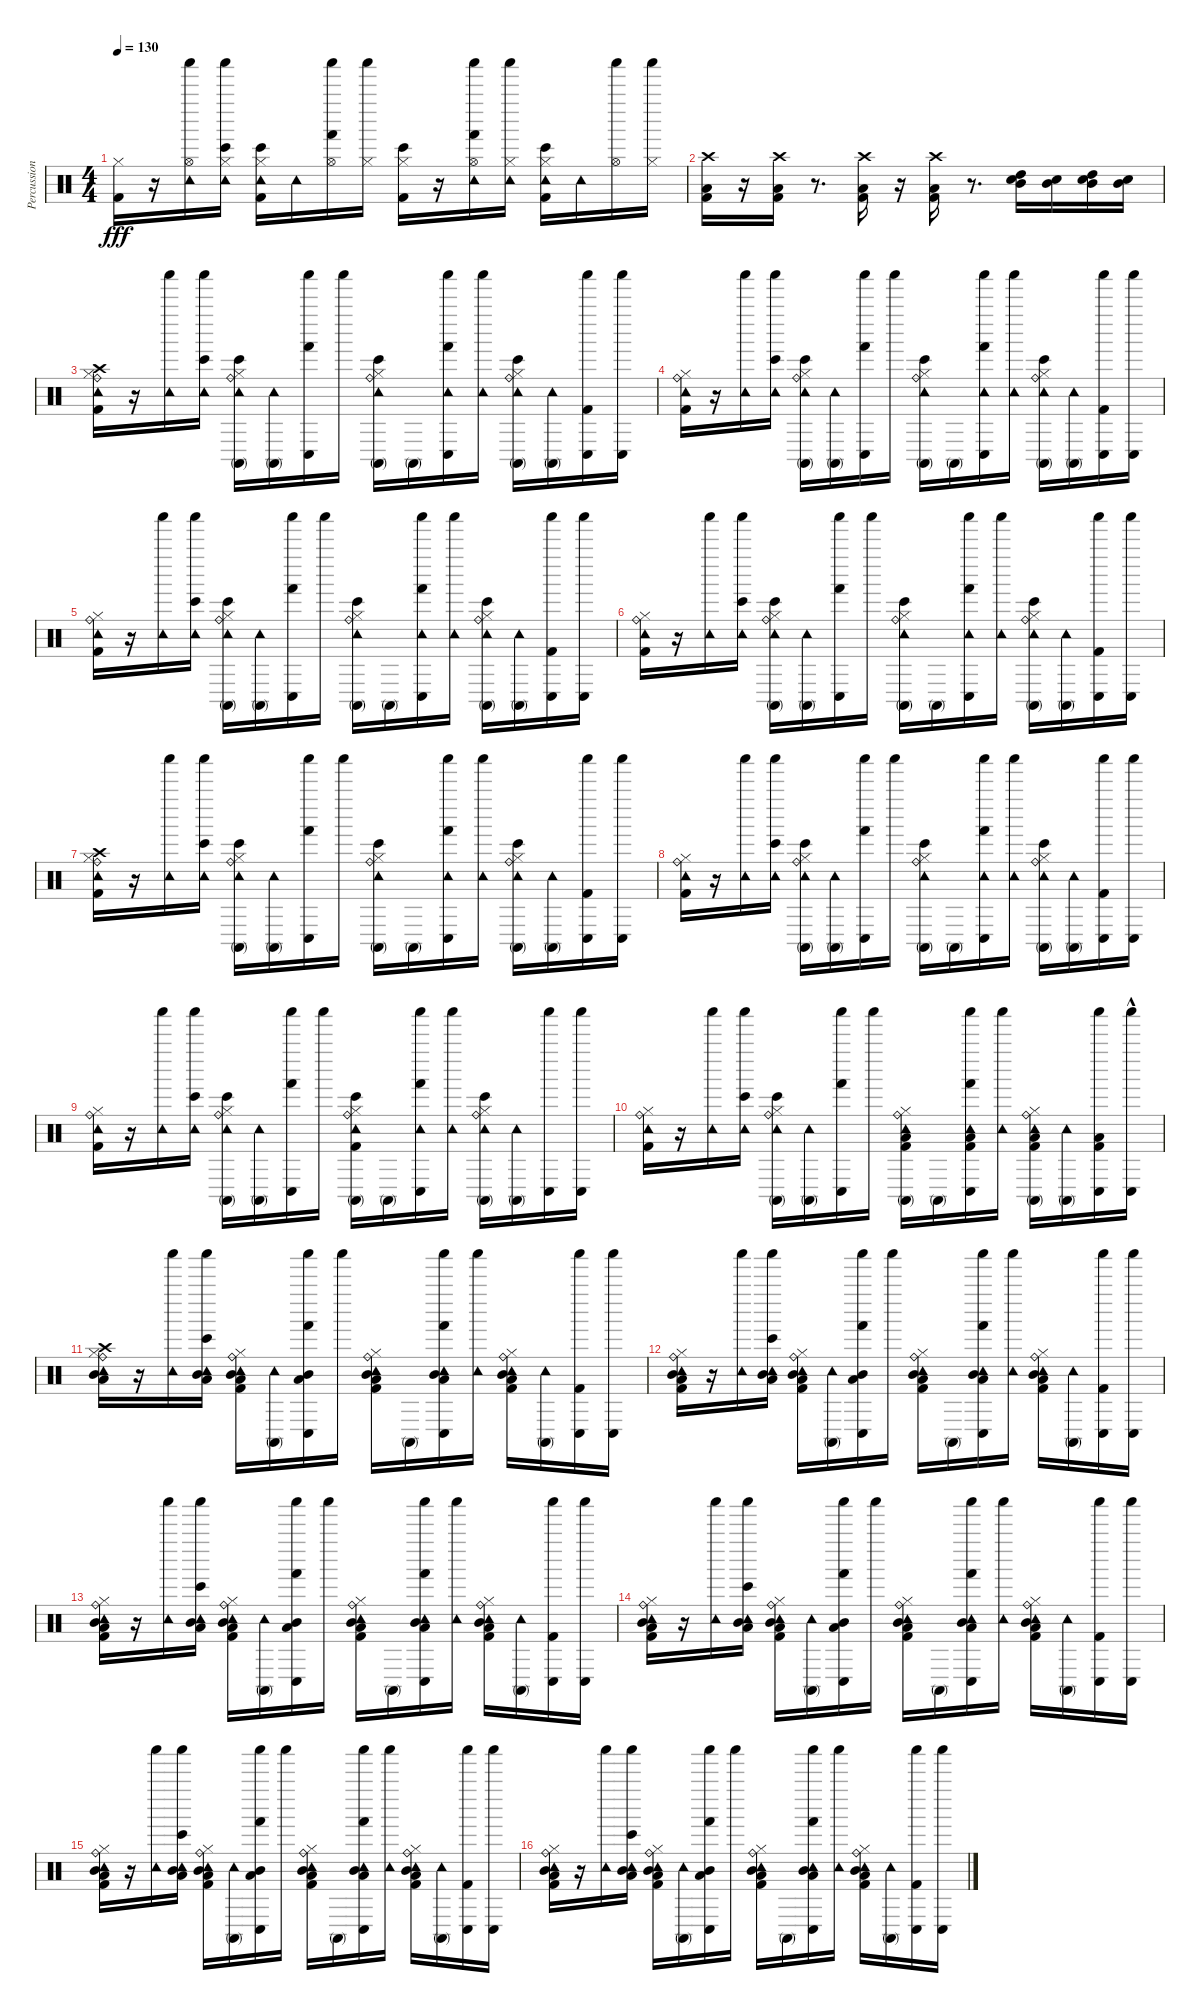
\track ("Percussions" "Percussion") {instrument percussion}
\staff {score}
\articulation defaults
\ts (4 4)
\tempo 130
\clef neutral
\ks c
("Hi-Hat (closed)" "Kick (hit) 2").16{dy fff} r.16 ("Hi-Hat (open)" "Tambourine (hit)" "Shaker (hit)").16 ("Tambourine (hit)" "Shaker (hit)" "Bongo High (hit)" "Hi-Hat (closed)").16 ("Hi-Hat (closed)" "Kick (hit) 2" "Tambourine (hit)" "Bongo High (hit)").16 "Tambourine (hit)".16 ("Hi-Hat (open)" "Shaker (hit)" "Hand (hit)").16 ("Shaker (hit)" "Hi-Hat (closed)").16 ("Hi-Hat (closed)" "Kick (hit) 2" "Bongo High (hit)").16 r.16 ("Hi-Hat (open)" "Tambourine (hit)" "Shaker (hit)" "Hand (hit)").16 ("Tambourine (hit)" "Shaker (hit)" "Hi-Hat (closed)").16 ("Hi-Hat (closed)" "Kick (hit) 2" "Tambourine (hit)" "Bongo High (hit)").16 "Tambourine (hit)".16 ("Hi-Hat (open)" "Shaker (hit)").16 ("Shaker (hit)" "Hi-Hat (closed)").16 |
("Low Tom (hit)" "Crash high (hit)" "Kick (hit) 2").16 r.16 ("Low Tom (hit)" "Crash high (hit)" "Kick (hit) 2").16 r.8{d} ("Low Tom (hit)" "Crash high (hit)" "Kick (hit) 2").16 r.16 ("Low Tom (hit)" "Crash high (hit)" "Kick (hit) 2").16 r.8{d} ("High Tom (hit)" "Mid Tom (hit)" "Snare (hit) 2").16 ("Mid Tom (hit)" "Snare (hit) 2").16 ("High Tom (hit)" "Mid Tom (hit)" "Snare (hit) 2").16 ("Mid Tom (hit)" "Snare (hit) 2").16 |
("Ride (bell)" "Hi-Hat (closed)" "Tambourine (hit)" "Kick (hit) 2" "Crash high (hit)").16 r.16 ("Tambourine (hit)" "Shaker (hit)").16 ("Tambourine (hit)" "Shaker (hit)" "Bongo High (hit)").16 ("Ride (bell)" "Hi-Hat (closed)" "Tambourine (hit)" "Conga high (mute)" "Bongo High (hit)").16 ("Conga high (mute)" "Tambourine (hit)").16 ("Conga low (hit)" "Shaker (hit)" "Hand (hit)").16 "Shaker (hit)".16 ("Ride (bell)" "Hi-Hat (closed)" "Tambourine (hit)" "Conga high (mute)" "Bongo High (hit)").16 "Conga high (mute)".16 ("Conga low (hit)" "Tambourine (hit)" "Shaker (hit)" "Hand (hit)").16 ("Tambourine (hit)" "Shaker (hit)").16 ("Ride (bell)" "Hi-Hat (closed)" "Tambourine (hit)" "Conga high (mute)" "Bongo High (hit)").16 ("Conga high (mute)" "Tambourine (hit)").16 ("Conga low (hit)" "Kick (hit) 2" "Shaker (hit)").16 ("Conga low (hit)" "Shaker (hit)").16 |
("Ride (bell)" "Hi-Hat (closed)" "Tambourine (hit)" "Kick (hit) 2").16 r.16 ("Tambourine (hit)" "Shaker (hit)").16 ("Tambourine (hit)" "Shaker (hit)" "Bongo High (hit)").16 ("Ride (bell)" "Hi-Hat (closed)" "Tambourine (hit)" "Conga high (mute)" "Bongo High (hit)").16 ("Conga high (mute)" "Tambourine (hit)").16 ("Conga low (hit)" "Shaker (hit)" "Hand (hit)").16 "Shaker (hit)".16 ("Ride (bell)" "Hi-Hat (closed)" "Tambourine (hit)" "Conga high (mute)" "Bongo High (hit)").16 "Conga high (mute)".16 ("Conga low (hit)" "Tambourine (hit)" "Shaker (hit)" "Hand (hit)").16 ("Tambourine (hit)" "Shaker (hit)").16 ("Ride (bell)" "Hi-Hat (closed)" "Tambourine (hit)" "Conga high (mute)" "Bongo High (hit)").16 ("Conga high (mute)" "Tambourine (hit)").16 ("Conga low (hit)" "Kick (hit) 2" "Shaker (hit)").16 ("Conga low (hit)" "Shaker (hit)").16 |
("Ride (bell)" "Hi-Hat (closed)" "Tambourine (hit)" "Kick (hit) 2").16 r.16 ("Tambourine (hit)" "Shaker (hit)").16 ("Tambourine (hit)" "Shaker (hit)" "Bongo High (hit)").16 ("Ride (bell)" "Hi-Hat (closed)" "Tambourine (hit)" "Conga high (mute)" "Bongo High (hit)").16 ("Conga high (mute)" "Tambourine (hit)").16 ("Conga low (hit)" "Shaker (hit)" "Hand (hit)").16 "Shaker (hit)".16 ("Ride (bell)" "Hi-Hat (closed)" "Tambourine (hit)" "Conga high (mute)" "Bongo High (hit)").16 "Conga high (mute)".16 ("Conga low (hit)" "Tambourine (hit)" "Shaker (hit)" "Hand (hit)").16 ("Tambourine (hit)" "Shaker (hit)").16 ("Ride (bell)" "Hi-Hat (closed)" "Tambourine (hit)" "Conga high (mute)" "Bongo High (hit)").16 ("Conga high (mute)" "Tambourine (hit)").16 ("Conga low (hit)" "Kick (hit) 2" "Shaker (hit)").16 ("Conga low (hit)" "Shaker (hit)").16 |
("Ride (bell)" "Hi-Hat (closed)" "Tambourine (hit)" "Kick (hit) 2").16 r.16 ("Tambourine (hit)" "Shaker (hit)").16 ("Tambourine (hit)" "Shaker (hit)" "Bongo High (hit)").16 ("Ride (bell)" "Hi-Hat (closed)" "Tambourine (hit)" "Conga high (mute)" "Bongo High (hit)").16 ("Conga high (mute)" "Tambourine (hit)").16 ("Conga low (hit)" "Shaker (hit)" "Hand (hit)").16 "Shaker (hit)".16 ("Ride (bell)" "Hi-Hat (closed)" "Tambourine (hit)" "Conga high (mute)" "Bongo High (hit)").16 "Conga high (mute)".16 ("Conga low (hit)" "Tambourine (hit)" "Shaker (hit)" "Hand (hit)").16 ("Tambourine (hit)" "Shaker (hit)").16 ("Ride (bell)" "Hi-Hat (closed)" "Tambourine (hit)" "Conga high (mute)" "Bongo High (hit)").16 ("Conga high (mute)" "Tambourine (hit)").16 ("Conga low (hit)" "Kick (hit) 2" "Shaker (hit)").16 ("Conga low (hit)" "Shaker (hit)").16 |
("Ride (bell)" "Hi-Hat (closed)" "Tambourine (hit)" "Kick (hit) 2" "Crash high (hit)").16 r.16 ("Tambourine (hit)" "Shaker (hit)").16 ("Tambourine (hit)" "Shaker (hit)" "Bongo High (hit)").16 ("Ride (bell)" "Hi-Hat (closed)" "Tambourine (hit)" "Conga high (mute)" "Bongo High (hit)").16 ("Conga high (mute)" "Tambourine (hit)").16 ("Conga low (hit)" "Shaker (hit)" "Hand (hit)").16 "Shaker (hit)".16 ("Ride (bell)" "Hi-Hat (closed)" "Tambourine (hit)" "Conga high (mute)" "Bongo High (hit)").16 "Conga high (mute)".16 ("Conga low (hit)" "Tambourine (hit)" "Shaker (hit)" "Hand (hit)").16 ("Tambourine (hit)" "Shaker (hit)").16 ("Ride (bell)" "Hi-Hat (closed)" "Tambourine (hit)" "Conga high (mute)" "Bongo High (hit)").16 ("Conga high (mute)" "Tambourine (hit)").16 ("Conga low (hit)" "Kick (hit) 2" "Shaker (hit)").16 ("Conga low (hit)" "Shaker (hit)").16 |
("Ride (bell)" "Hi-Hat (closed)" "Tambourine (hit)" "Kick (hit) 2").16 r.16 ("Tambourine (hit)" "Shaker (hit)").16 ("Tambourine (hit)" "Shaker (hit)" "Bongo High (hit)").16 ("Ride (bell)" "Hi-Hat (closed)" "Tambourine (hit)" "Conga high (mute)" "Bongo High (hit)").16 ("Conga high (mute)" "Tambourine (hit)").16 ("Conga low (hit)" "Shaker (hit)" "Hand (hit)").16 "Shaker (hit)".16 ("Ride (bell)" "Hi-Hat (closed)" "Tambourine (hit)" "Conga high (mute)" "Bongo High (hit)").16 "Conga high (mute)".16 ("Conga low (hit)" "Tambourine (hit)" "Shaker (hit)" "Hand (hit)").16 ("Tambourine (hit)" "Shaker (hit)").16 ("Ride (bell)" "Hi-Hat (closed)" "Tambourine (hit)" "Conga high (mute)" "Bongo High (hit)").16 ("Conga high (mute)" "Tambourine (hit)").16 ("Conga low (hit)" "Kick (hit) 2" "Shaker (hit)").16 ("Conga low (hit)" "Shaker (hit)").16 |
("Kick (hit) 2" "Ride (bell)" "Hi-Hat (closed)" "Tambourine (hit)").16 r.16 ("Tambourine (hit)" "Shaker (hit)").16 ("Tambourine (hit)" "Shaker (hit)" "Bongo High (hit)").16 ("Ride (bell)" "Hi-Hat (closed)" "Tambourine (hit)" "Conga high (mute)" "Bongo High (hit)").16 ("Conga high (mute)" "Tambourine (hit)").16 ("Conga low (hit)" "Shaker (hit)" "Hand (hit)").16 "Shaker (hit)".16 ("Kick (hit) 2" "Ride (bell)" "Hi-Hat (closed)" "Tambourine (hit)" "Conga high (mute)" "Bongo High (hit)").16 "Conga high (mute)".16 ("Conga low (hit)" "Tambourine (hit)" "Shaker (hit)" "Hand (hit)").16 ("Tambourine (hit)" "Shaker (hit)").16 ("Ride (bell)" "Hi-Hat (closed)" "Tambourine (hit)" "Conga high (mute)" "Bongo High (hit)").16 ("Conga high (mute)" "Tambourine (hit)").16 ("Conga low (hit)" "Shaker (hit)").16 ("Conga low (hit)" "Shaker (hit)").16 |
("Kick (hit) 2" "Ride (bell)" "Hi-Hat (closed)" "Tambourine (hit)").16 r.16 ("Tambourine (hit)" "Shaker (hit)").16 ("Tambourine (hit)" "Shaker (hit)" "Bongo High (hit)").16 ("Ride (bell)" "Hi-Hat (closed)" "Tambourine (hit)" "Conga high (mute)" "Bongo High (hit)").16 ("Conga high (mute)" "Tambourine (hit)").16 ("Conga low (hit)" "Shaker (hit)" "Hand (hit)").16 "Shaker (hit)".16 ("Low Tom (hit)" "Kick (hit) 2" "Ride (bell)" "Hi-Hat (closed)" "Tambourine (hit)" "Conga high (mute)").16 "Conga high (mute)".16 ("Low Tom (hit)" "Kick (hit) 2" "Conga low (hit)" "Tambourine (hit)" "Shaker (hit)" "Hand (hit)").16 ("Tambourine (hit)" "Shaker (hit)").16 ("Low Tom (hit)" "Kick (hit) 2" "Ride (bell)" "Hi-Hat (closed)" "Tambourine (hit)" "Conga high (mute)").16 ("Conga high (mute)" "Tambourine (hit)").16 ("Low Tom (hit)" "Kick (hit) 2" "Conga low (hit)" "Shaker (hit)").16 ("Conga low (hit)"{hac} "Shaker (hit)"{hac}).16 |
("Crash high (hit)" "Low Tom (hit)" "Mid Tom (hit)" "Ride (bell)" "Hi-Hat (closed)" "Tambourine (hit)").16 r.16 ("Tambourine (hit)" "Shaker (hit)").16 ("Low Tom (hit)" "Mid Tom (hit)" "Tambourine (hit)" "Shaker (hit)" "Bongo High (hit)").16 ("Low Tom (hit)" "Mid Tom (hit)" "Kick (hit) 2" "Ride (bell)" "Hi-Hat (closed)" "Tambourine (hit)").16 ("Conga high (mute)" "Tambourine (hit)").16 ("Low Tom (hit)" "Mid Tom (hit)" "Conga low (hit)" "Shaker (hit)" "Hand (hit)").16 "Shaker (hit)".16 ("Low Tom (hit)" "Mid Tom (hit)" "Kick (hit) 2" "Ride (bell)" "Hi-Hat (closed)" "Tambourine (hit)").16 "Conga high (mute)".16 ("Low Tom (hit)" "Mid Tom (hit)" "Conga low (hit)" "Tambourine (hit)" "Shaker (hit)" "Hand (hit)").16 ("Tambourine (hit)" "Shaker (hit)").16 ("Low Tom (hit)" "Mid Tom (hit)" "Kick (hit) 2" "Ride (bell)" "Hi-Hat (closed)" "Tambourine (hit)").16 ("Conga high (mute)" "Tambourine (hit)").16 ("Conga low (hit)" "Kick (hit) 2" "Shaker (hit)").16 ("Conga low (hit)" "Shaker (hit)").16 |
("Low Tom (hit)" "Mid Tom (hit)" "Ride (bell)" "Hi-Hat (closed)" "Tambourine (hit)" "Kick (hit) 2").16 r.16 ("Tambourine (hit)" "Shaker (hit)").16 ("Low Tom (hit)" "Mid Tom (hit)" "Tambourine (hit)" "Shaker (hit)" "Bongo High (hit)").16 ("Low Tom (hit)" "Mid Tom (hit)" "Kick (hit) 2" "Ride (bell)" "Hi-Hat (closed)" "Tambourine (hit)").16 ("Conga high (mute)" "Tambourine (hit)").16 ("Low Tom (hit)" "Mid Tom (hit)" "Conga low (hit)" "Shaker (hit)" "Hand (hit)").16 "Shaker (hit)".16 ("Low Tom (hit)" "Mid Tom (hit)" "Kick (hit) 2" "Ride (bell)" "Hi-Hat (closed)" "Tambourine (hit)").16 "Conga high (mute)".16 ("Low Tom (hit)" "Mid Tom (hit)" "Conga low (hit)" "Tambourine (hit)" "Shaker (hit)" "Hand (hit)").16 ("Tambourine (hit)" "Shaker (hit)").16 ("Low Tom (hit)" "Mid Tom (hit)" "Kick (hit) 2" "Ride (bell)" "Hi-Hat (closed)" "Tambourine (hit)").16 ("Conga high (mute)" "Tambourine (hit)").16 ("Conga low (hit)" "Kick (hit) 2" "Shaker (hit)").16 ("Conga low (hit)" "Shaker (hit)").16 |
("Low Tom (hit)" "Mid Tom (hit)" "Ride (bell)" "Hi-Hat (closed)" "Tambourine (hit)" "Kick (hit) 2").16 r.16 ("Tambourine (hit)" "Shaker (hit)").16 ("Low Tom (hit)" "Mid Tom (hit)" "Tambourine (hit)" "Shaker (hit)" "Bongo High (hit)").16 ("Low Tom (hit)" "Mid Tom (hit)" "Kick (hit) 2" "Ride (bell)" "Hi-Hat (closed)" "Tambourine (hit)").16 ("Conga high (mute)" "Tambourine (hit)").16 ("Low Tom (hit)" "Mid Tom (hit)" "Conga low (hit)" "Shaker (hit)" "Hand (hit)").16 "Shaker (hit)".16 ("Low Tom (hit)" "Mid Tom (hit)" "Kick (hit) 2" "Ride (bell)" "Hi-Hat (closed)" "Tambourine (hit)").16 "Conga high (mute)".16 ("Low Tom (hit)" "Mid Tom (hit)" "Conga low (hit)" "Tambourine (hit)" "Shaker (hit)" "Hand (hit)").16 ("Tambourine (hit)" "Shaker (hit)").16 ("Low Tom (hit)" "Mid Tom (hit)" "Kick (hit) 2" "Ride (bell)" "Hi-Hat (closed)" "Tambourine (hit)").16 ("Conga high (mute)" "Tambourine (hit)").16 ("Conga low (hit)" "Kick (hit) 2" "Shaker (hit)").16 ("Conga low (hit)" "Shaker (hit)").16 |
("Low Tom (hit)" "Mid Tom (hit)" "Ride (bell)" "Hi-Hat (closed)" "Tambourine (hit)" "Kick (hit) 2").16 r.16 ("Tambourine (hit)" "Shaker (hit)").16 ("Low Tom (hit)" "Mid Tom (hit)" "Tambourine (hit)" "Shaker (hit)" "Bongo High (hit)").16 ("Low Tom (hit)" "Mid Tom (hit)" "Kick (hit) 2" "Ride (bell)" "Hi-Hat (closed)" "Tambourine (hit)").16 ("Conga high (mute)" "Tambourine (hit)").16 ("Low Tom (hit)" "Mid Tom (hit)" "Conga low (hit)" "Shaker (hit)" "Hand (hit)").16 "Shaker (hit)".16 ("Low Tom (hit)" "Mid Tom (hit)" "Kick (hit) 2" "Ride (bell)" "Hi-Hat (closed)" "Tambourine (hit)").16 "Conga high (mute)".16 ("Low Tom (hit)" "Mid Tom (hit)" "Conga low (hit)" "Tambourine (hit)" "Shaker (hit)" "Hand (hit)").16 ("Tambourine (hit)" "Shaker (hit)").16 ("Low Tom (hit)" "Mid Tom (hit)" "Kick (hit) 2" "Ride (bell)" "Hi-Hat (closed)" "Tambourine (hit)").16 ("Conga high (mute)" "Tambourine (hit)").16 ("Conga low (hit)" "Kick (hit) 2" "Shaker (hit)").16 ("Conga low (hit)" "Shaker (hit)").16 |
("Low Tom (hit)" "Mid Tom (hit)" "Ride (bell)" "Hi-Hat (closed)" "Tambourine (hit)" "Kick (hit) 2").16 r.16 ("Tambourine (hit)" "Shaker (hit)").16 ("Low Tom (hit)" "Mid Tom (hit)" "Tambourine (hit)" "Shaker (hit)" "Bongo High (hit)").16 ("Low Tom (hit)" "Mid Tom (hit)" "Kick (hit) 2" "Ride (bell)" "Hi-Hat (closed)" "Tambourine (hit)").16 ("Conga high (mute)" "Tambourine (hit)").16 ("Low Tom (hit)" "Mid Tom (hit)" "Conga low (hit)" "Shaker (hit)" "Hand (hit)").16 "Shaker (hit)".16 ("Low Tom (hit)" "Mid Tom (hit)" "Kick (hit) 2" "Ride (bell)" "Hi-Hat (closed)" "Tambourine (hit)").16 "Conga high (mute)".16 ("Low Tom (hit)" "Mid Tom (hit)" "Conga low (hit)" "Tambourine (hit)" "Shaker (hit)" "Hand (hit)").16 ("Tambourine (hit)" "Shaker (hit)").16 ("Low Tom (hit)" "Mid Tom (hit)" "Kick (hit) 2" "Ride (bell)" "Hi-Hat (closed)" "Tambourine (hit)").16 ("Conga high (mute)" "Tambourine (hit)").16 ("Conga low (hit)" "Kick (hit) 2" "Shaker (hit)").16 ("Conga low (hit)" "Shaker (hit)").16 |
("Low Tom (hit)" "Mid Tom (hit)" "Ride (bell)" "Hi-Hat (closed)" "Tambourine (hit)" "Kick (hit) 2").16 r.16 ("Tambourine (hit)" "Shaker (hit)").16 ("Low Tom (hit)" "Mid Tom (hit)" "Tambourine (hit)" "Shaker (hit)" "Bongo High (hit)").16 ("Low Tom (hit)" "Mid Tom (hit)" "Kick (hit) 2" "Ride (bell)" "Hi-Hat (closed)" "Tambourine (hit)").16 ("Conga high (mute)" "Tambourine (hit)").16 ("Low Tom (hit)" "Mid Tom (hit)" "Conga low (hit)" "Shaker (hit)" "Hand (hit)").16 "Shaker (hit)".16 ("Low Tom (hit)" "Mid Tom (hit)" "Kick (hit) 2" "Ride (bell)" "Hi-Hat (closed)" "Tambourine (hit)").16 "Conga high (mute)".16 ("Low Tom (hit)" "Mid Tom (hit)" "Conga low (hit)" "Tambourine (hit)" "Shaker (hit)" "Hand (hit)").16 ("Tambourine (hit)" "Shaker (hit)").16 ("Low Tom (hit)" "Mid Tom (hit)" "Kick (hit) 2" "Ride (bell)" "Hi-Hat (closed)" "Tambourine (hit)").16 ("Conga high (mute)" "Tambourine (hit)").16 ("Conga low (hit)" "Kick (hit) 2" "Shaker (hit)").16 ("Conga low (hit)" "Shaker (hit)").16
